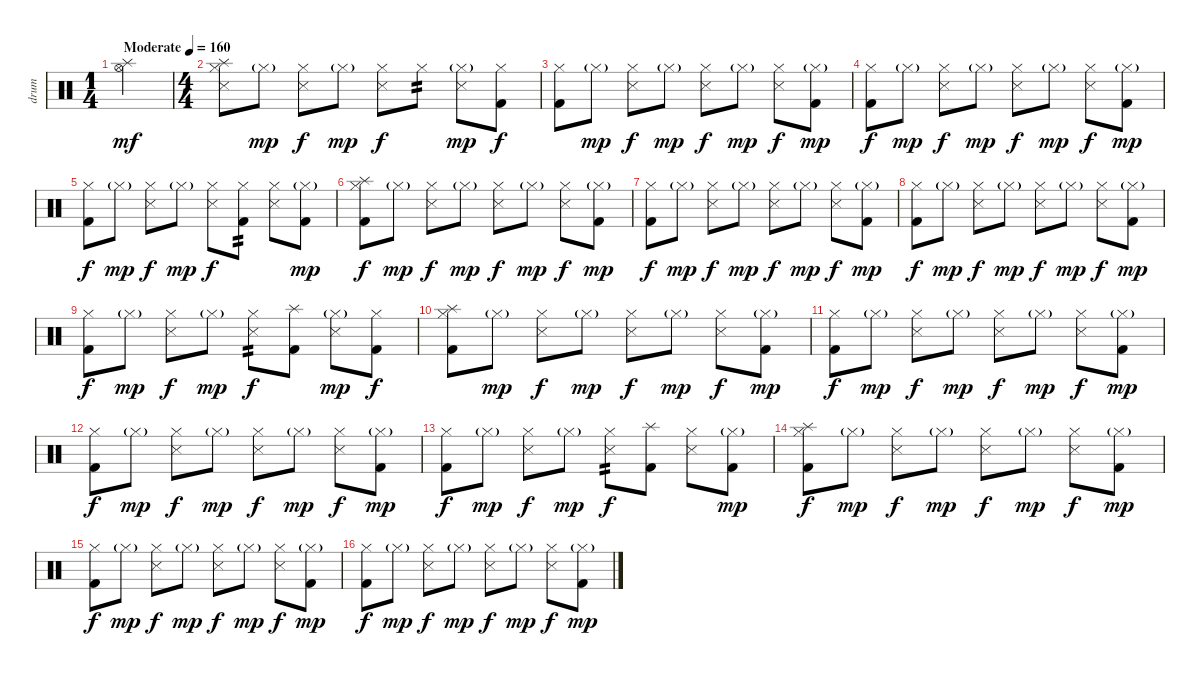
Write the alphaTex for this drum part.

\track ("drum" "drum") {instrument percussion}
\staff {score}
\articulation defaults
\ts (1 4)
\tempo (160 "Moderate")
\clef neutral
\ks c
("Splash (hit)" "Hi-Hat (open)").4{dy mf} |
\ts (4 4)
("Splash (hit)" "Hi-Hat (closed)" "Snare (side stick) 3").8 "Hi-Hat (closed)"{g}.8{dy mp} ("Hi-Hat (closed)" "Snare (side stick) 3").8{dy f} "Hi-Hat (closed)"{g}.8{dy mp} ("Hi-Hat (closed)" "Snare (side stick) 3").8{dy f} "Hi-Hat (closed)".8{tp 2} ("Hi-Hat (closed)"{g} "Snare (side stick) 3").8{dy mp} ("Hi-Hat (closed)" "Kick (hit) 2").8{dy f} |
("Hi-Hat (closed)" "Kick (hit) 2").8 "Hi-Hat (closed)"{g}.8{dy mp} ("Hi-Hat (closed)" "Snare (side stick) 3").8{dy f} "Hi-Hat (closed)"{g}.8{dy mp} ("Hi-Hat (closed)" "Snare (side stick) 3").8{dy f} "Hi-Hat (closed)"{g}.8{dy mp} ("Hi-Hat (closed)" "Snare (side stick) 3").8{dy f} ("Hi-Hat (closed)"{g} "Kick (hit) 2").8{dy mp} |
("Hi-Hat (closed)" "Kick (hit) 2").8{dy f} "Hi-Hat (closed)"{g}.8{dy mp} ("Hi-Hat (closed)" "Snare (side stick) 3").8{dy f} "Hi-Hat (closed)"{g}.8{dy mp} ("Hi-Hat (closed)" "Snare (side stick) 3").8{dy f} "Hi-Hat (closed)"{g}.8{dy mp} ("Hi-Hat (closed)" "Snare (side stick) 3").8{dy f} ("Hi-Hat (closed)"{g} "Kick (hit) 2").8{dy mp} |
("Hi-Hat (closed)" "Kick (hit) 2").8{dy f} "Hi-Hat (closed)"{g}.8{dy mp} ("Hi-Hat (closed)" "Snare (side stick) 3").8{dy f} "Hi-Hat (closed)"{g}.8{dy mp} ("Hi-Hat (closed)" "Snare (side stick) 3").8{dy f} ("Hi-Hat (closed)" "Kick (hit) 2").8{tp 2} ("Hi-Hat (closed)" "Snare (side stick) 3").8 ("Hi-Hat (closed)"{g} "Kick (hit) 2").8{dy mp} |
("Splash (hit)" "Hi-Hat (closed)" "Kick (hit) 2").8{dy f} "Hi-Hat (closed)"{g}.8{dy mp} ("Hi-Hat (closed)" "Snare (side stick) 3").8{dy f} "Hi-Hat (closed)"{g}.8{dy mp} ("Hi-Hat (closed)" "Snare (side stick) 3").8{dy f} "Hi-Hat (closed)"{g}.8{dy mp} ("Hi-Hat (closed)" "Snare (side stick) 3").8{dy f} ("Hi-Hat (closed)"{g} "Kick (hit) 2").8{dy mp} |
("Hi-Hat (closed)" "Kick (hit) 2").8{dy f} "Hi-Hat (closed)"{g}.8{dy mp} ("Hi-Hat (closed)" "Snare (side stick) 3").8{dy f} "Hi-Hat (closed)"{g}.8{dy mp} ("Hi-Hat (closed)" "Snare (side stick) 3").8{dy f} "Hi-Hat (closed)"{g}.8{dy mp} ("Hi-Hat (closed)" "Snare (side stick) 3").8{dy f} ("Hi-Hat (closed)"{g} "Kick (hit) 2").8{dy mp} |
("Hi-Hat (closed)" "Kick (hit) 2").8{dy f} "Hi-Hat (closed)"{g}.8{dy mp} ("Hi-Hat (closed)" "Snare (side stick) 3").8{dy f} "Hi-Hat (closed)"{g}.8{dy mp} ("Hi-Hat (closed)" "Snare (side stick) 3").8{dy f} "Hi-Hat (closed)"{g}.8{dy mp} ("Hi-Hat (closed)" "Snare (side stick) 3").8{dy f} ("Hi-Hat (closed)"{g} "Kick (hit) 2").8{dy mp} |
("Hi-Hat (closed)" "Kick (hit) 2").8{dy f} "Hi-Hat (closed)"{g}.8{dy mp} ("Hi-Hat (closed)" "Snare (side stick) 3").8{dy f} "Hi-Hat (closed)"{g}.8{dy mp} ("Hi-Hat (closed)" "Snare (side stick) 3").8{tp 2 dy f} ("Splash (hit)" "Kick (hit) 2").8 ("Hi-Hat (closed)"{g} "Snare (side stick) 3").8{dy mp} ("Hi-Hat (closed)" "Kick (hit) 2").8{dy f} |
("Splash (hit)" "Hi-Hat (closed)" "Kick (hit) 2").8 "Hi-Hat (closed)"{g}.8{dy mp} ("Hi-Hat (closed)" "Snare (side stick) 3").8{dy f} "Hi-Hat (closed)"{g}.8{dy mp} ("Hi-Hat (closed)" "Snare (side stick) 3").8{dy f} "Hi-Hat (closed)"{g}.8{dy mp} ("Hi-Hat (closed)" "Snare (side stick) 3").8{dy f} ("Hi-Hat (closed)"{g} "Kick (hit) 2").8{dy mp} |
("Hi-Hat (closed)" "Kick (hit) 2").8{dy f} "Hi-Hat (closed)"{g}.8{dy mp} ("Hi-Hat (closed)" "Snare (side stick) 3").8{dy f} "Hi-Hat (closed)"{g}.8{dy mp} ("Hi-Hat (closed)" "Snare (side stick) 3").8{dy f} "Hi-Hat (closed)"{g}.8{dy mp} ("Hi-Hat (closed)" "Snare (side stick) 3").8{dy f} ("Hi-Hat (closed)"{g} "Kick (hit) 2").8{dy mp} |
("Hi-Hat (closed)" "Kick (hit) 2").8{dy f} "Hi-Hat (closed)"{g}.8{dy mp} ("Hi-Hat (closed)" "Snare (side stick) 3").8{dy f} "Hi-Hat (closed)"{g}.8{dy mp} ("Hi-Hat (closed)" "Snare (side stick) 3").8{dy f} "Hi-Hat (closed)"{g}.8{dy mp} ("Hi-Hat (closed)" "Snare (side stick) 3").8{dy f} ("Hi-Hat (closed)"{g} "Kick (hit) 2").8{dy mp} |
("Hi-Hat (closed)" "Kick (hit) 2").8{dy f} "Hi-Hat (closed)"{g}.8{dy mp} ("Hi-Hat (closed)" "Snare (side stick) 3").8{dy f} "Hi-Hat (closed)"{g}.8{dy mp} ("Hi-Hat (closed)" "Snare (side stick) 3").8{tp 2 dy f} ("Splash (hit)" "Kick (hit) 2").8 ("Hi-Hat (closed)" "Snare (side stick) 3").8 ("Hi-Hat (closed)"{g} "Kick (hit) 2").8{dy mp} |
("Splash (hit)" "Hi-Hat (closed)" "Kick (hit) 2").8{dy f} "Hi-Hat (closed)"{g}.8{dy mp} ("Hi-Hat (closed)" "Snare (side stick) 3").8{dy f} "Hi-Hat (closed)"{g}.8{dy mp} ("Hi-Hat (closed)" "Snare (side stick) 3").8{dy f} "Hi-Hat (closed)"{g}.8{dy mp} ("Hi-Hat (closed)" "Snare (side stick) 3").8{dy f} ("Hi-Hat (closed)"{g} "Kick (hit) 2").8{dy mp} |
("Hi-Hat (closed)" "Kick (hit) 2").8{dy f} "Hi-Hat (closed)"{g}.8{dy mp} ("Hi-Hat (closed)" "Snare (side stick) 3").8{dy f} "Hi-Hat (closed)"{g}.8{dy mp} ("Hi-Hat (closed)" "Snare (side stick) 3").8{dy f} "Hi-Hat (closed)"{g}.8{dy mp} ("Hi-Hat (closed)" "Snare (side stick) 3").8{dy f} ("Hi-Hat (closed)"{g} "Kick (hit) 2").8{dy mp} |
("Hi-Hat (closed)" "Kick (hit) 2").8{dy f} "Hi-Hat (closed)"{g}.8{dy mp} ("Hi-Hat (closed)" "Snare (side stick) 3").8{dy f} "Hi-Hat (closed)"{g}.8{dy mp} ("Hi-Hat (closed)" "Snare (side stick) 3").8{dy f} "Hi-Hat (closed)"{g}.8{dy mp} ("Hi-Hat (closed)" "Snare (side stick) 3").8{dy f} ("Hi-Hat (closed)"{g} "Kick (hit) 2").8{dy mp}
